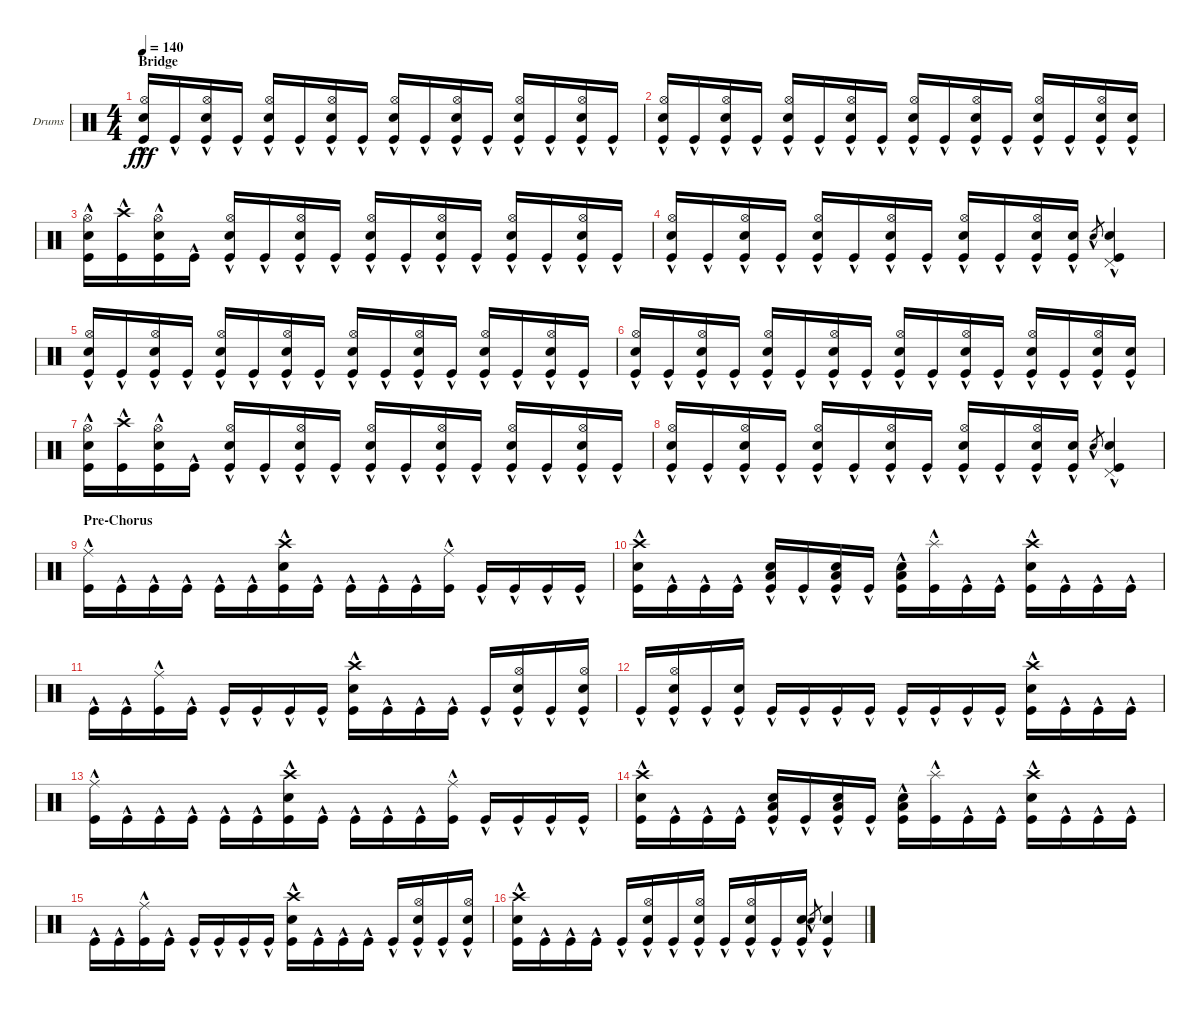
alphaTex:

\bracketExtendMode groupsimilarinstruments
\firstSystemTrackNameOrientation horizontal
\otherSystemsTrackNameOrientation horizontal
\track ("BigMc" "Drums") {instrument percussion}
\staff {score}
\articulation defaults
\ts (4 4)
\section ("" "Bridge")
\tempo 140
\clef neutral
\ks c
("Kick (hit)"{hac} "Hi-Hat (open)"{hac} "Snare (hit) 2"{hac}).16{dy fff} "Kick (hit)"{hac}.16 ("Kick (hit)"{hac} "Hi-Hat (open)"{hac} "Snare (hit) 2"{hac}).16 "Kick (hit)"{hac}.16 ("Kick (hit)"{hac} "Hi-Hat (open)"{hac} "Snare (hit) 2"{hac}).16 "Kick (hit)"{hac}.16 ("Kick (hit)"{hac} "Hi-Hat (open)"{hac} "Snare (hit) 2"{hac}).16 "Kick (hit)"{hac}.16 ("Kick (hit)"{hac} "Hi-Hat (open)"{hac} "Snare (hit) 2"{hac}).16 "Kick (hit)"{hac}.16 ("Kick (hit)"{hac} "Hi-Hat (open)"{hac} "Snare (hit) 2"{hac}).16 "Kick (hit)"{hac}.16 ("Kick (hit)"{hac} "Hi-Hat (open)"{hac} "Snare (hit) 2"{hac}).16 "Kick (hit)"{hac}.16 ("Kick (hit)"{hac} "Hi-Hat (open)"{hac} "Snare (hit) 2"{hac}).16 "Kick (hit)"{hac}.16 |
("Kick (hit)"{hac} "Hi-Hat (open)"{hac} "Snare (hit) 2"{hac}).16 "Kick (hit)"{hac}.16 ("Kick (hit)"{hac} "Hi-Hat (open)"{hac} "Snare (hit) 2"{hac}).16 "Kick (hit)"{hac}.16 ("Kick (hit)"{hac} "Hi-Hat (open)"{hac} "Snare (hit) 2"{hac}).16 "Kick (hit)"{hac}.16 ("Kick (hit)"{hac} "Hi-Hat (open)"{hac} "Snare (hit) 2"{hac}).16 "Kick (hit)"{hac}.16 ("Kick (hit)"{hac} "Hi-Hat (open)"{hac} "Snare (hit) 2"{hac}).16 "Kick (hit)"{hac}.16 ("Kick (hit)"{hac} "Hi-Hat (open)"{hac} "Snare (hit) 2"{hac}).16 "Kick (hit)"{hac}.16 ("Kick (hit)"{hac} "Hi-Hat (open)"{hac} "Snare (hit) 2"{hac}).16 "Kick (hit)"{hac}.16 ("Kick (hit)"{hac} "Hi-Hat (open)"{hac} "Snare (hit) 2"{hac}).16 ("Kick (hit)"{hac} "Snare (hit) 2"{hac}).16 |
("Kick (hit)"{hac} "Hi-Hat (open)"{hac} "Snare (hit) 2"{hac}).16 ("Kick (hit)"{hac} "Crash high (hit)"{hac}).16 ("Kick (hit)"{hac} "Hi-Hat (open)"{hac} "Snare (hit) 2"{hac}).16 "Kick (hit)"{hac}.16 ("Kick (hit)"{hac} "Hi-Hat (open)"{hac} "Snare (hit) 2"{hac}).16 "Kick (hit)"{hac}.16 ("Kick (hit)"{hac} "Hi-Hat (open)"{hac} "Snare (hit) 2"{hac}).16 "Kick (hit)"{hac}.16 ("Kick (hit)"{hac} "Hi-Hat (open)"{hac} "Snare (hit) 2"{hac}).16 "Kick (hit)"{hac}.16 ("Kick (hit)"{hac} "Hi-Hat (open)"{hac} "Snare (hit) 2"{hac}).16 "Kick (hit)"{hac}.16 ("Kick (hit)"{hac} "Hi-Hat (open)"{hac} "Snare (hit) 2"{hac}).16 "Kick (hit)"{hac}.16 ("Kick (hit)"{hac} "Hi-Hat (open)"{hac} "Snare (hit) 2"{hac}).16 "Kick (hit)"{hac}.16 |
("Kick (hit)"{hac} "Hi-Hat (open)"{hac} "Snare (hit) 2"{hac}).16 "Kick (hit)"{hac}.16 ("Kick (hit)"{hac} "Hi-Hat (open)"{hac} "Snare (hit) 2"{hac}).16 "Kick (hit)"{hac}.16 ("Kick (hit)"{hac} "Hi-Hat (open)"{hac} "Snare (hit) 2"{hac}).16 "Kick (hit)"{hac}.16 ("Kick (hit)"{hac} "Hi-Hat (open)"{hac} "Snare (hit) 2"{hac}).16 "Kick (hit)"{hac}.16 ("Kick (hit)"{hac} "Hi-Hat (open)"{hac} "Snare (hit) 2"{hac}).16 "Kick (hit)"{hac}.16 ("Kick (hit)"{hac} "Hi-Hat (open)"{hac} "Snare (hit) 2"{hac}).16 ("Kick (hit)"{hac} "Snare (hit) 2"{hac}).16 "Snare (hit) 2"{hac}.8{gr} ("Snare (hit) 2"{hac} "Pedal Hi-Hat (hit)"{hac} "Kick (hit)"{hac}).4 |
("Kick (hit)"{hac} "Hi-Hat (open)"{hac} "Snare (hit) 2"{hac}).16 "Kick (hit)"{hac}.16 ("Kick (hit)"{hac} "Hi-Hat (open)"{hac} "Snare (hit) 2"{hac}).16 "Kick (hit)"{hac}.16 ("Kick (hit)"{hac} "Hi-Hat (open)"{hac} "Snare (hit) 2"{hac}).16 "Kick (hit)"{hac}.16 ("Kick (hit)"{hac} "Hi-Hat (open)"{hac} "Snare (hit) 2"{hac}).16 "Kick (hit)"{hac}.16 ("Kick (hit)"{hac} "Hi-Hat (open)"{hac} "Snare (hit) 2"{hac}).16 "Kick (hit)"{hac}.16 ("Kick (hit)"{hac} "Hi-Hat (open)"{hac} "Snare (hit) 2"{hac}).16 "Kick (hit)"{hac}.16 ("Kick (hit)"{hac} "Hi-Hat (open)"{hac} "Snare (hit) 2"{hac}).16 "Kick (hit)"{hac}.16 ("Kick (hit)"{hac} "Hi-Hat (open)"{hac} "Snare (hit) 2"{hac}).16 "Kick (hit)"{hac}.16 |
("Kick (hit)"{hac} "Hi-Hat (open)"{hac} "Snare (hit) 2"{hac}).16 "Kick (hit)"{hac}.16 ("Kick (hit)"{hac} "Hi-Hat (open)"{hac} "Snare (hit) 2"{hac}).16 "Kick (hit)"{hac}.16 ("Kick (hit)"{hac} "Hi-Hat (open)"{hac} "Snare (hit) 2"{hac}).16 "Kick (hit)"{hac}.16 ("Kick (hit)"{hac} "Hi-Hat (open)"{hac} "Snare (hit) 2"{hac}).16 "Kick (hit)"{hac}.16 ("Kick (hit)"{hac} "Hi-Hat (open)"{hac} "Snare (hit) 2"{hac}).16 "Kick (hit)"{hac}.16 ("Kick (hit)"{hac} "Hi-Hat (open)"{hac} "Snare (hit) 2"{hac}).16 "Kick (hit)"{hac}.16 ("Kick (hit)"{hac} "Hi-Hat (open)"{hac} "Snare (hit) 2"{hac}).16 "Kick (hit)"{hac}.16 ("Kick (hit)"{hac} "Hi-Hat (open)"{hac} "Snare (hit) 2"{hac}).16 ("Kick (hit)"{hac} "Snare (hit) 2"{hac}).16 |
("Kick (hit)"{hac} "Hi-Hat (open)"{hac} "Snare (hit) 2"{hac}).16 ("Kick (hit)"{hac} "Crash high (hit)"{hac}).16 ("Kick (hit)"{hac} "Hi-Hat (open)"{hac} "Snare (hit) 2"{hac}).16 "Kick (hit)"{hac}.16 ("Kick (hit)"{hac} "Hi-Hat (open)"{hac} "Snare (hit) 2"{hac}).16 "Kick (hit)"{hac}.16 ("Kick (hit)"{hac} "Hi-Hat (open)"{hac} "Snare (hit) 2"{hac}).16 "Kick (hit)"{hac}.16 ("Kick (hit)"{hac} "Hi-Hat (open)"{hac} "Snare (hit) 2"{hac}).16 "Kick (hit)"{hac}.16 ("Kick (hit)"{hac} "Hi-Hat (open)"{hac} "Snare (hit) 2"{hac}).16 "Kick (hit)"{hac}.16 ("Kick (hit)"{hac} "Hi-Hat (open)"{hac} "Snare (hit) 2"{hac}).16 "Kick (hit)"{hac}.16 ("Kick (hit)"{hac} "Hi-Hat (open)"{hac} "Snare (hit) 2"{hac}).16 "Kick (hit)"{hac}.16 |
("Kick (hit)"{hac} "Hi-Hat (open)"{hac} "Snare (hit) 2"{hac}).16 "Kick (hit)"{hac}.16 ("Kick (hit)"{hac} "Hi-Hat (open)"{hac} "Snare (hit) 2"{hac}).16 "Kick (hit)"{hac}.16 ("Kick (hit)"{hac} "Hi-Hat (open)"{hac} "Snare (hit) 2"{hac}).16 "Kick (hit)"{hac}.16 ("Kick (hit)"{hac} "Hi-Hat (open)"{hac} "Snare (hit) 2"{hac}).16 "Kick (hit)"{hac}.16 ("Kick (hit)"{hac} "Hi-Hat (open)"{hac} "Snare (hit) 2"{hac}).16 "Kick (hit)"{hac}.16 ("Kick (hit)"{hac} "Hi-Hat (open)"{hac} "Snare (hit) 2"{hac}).16 ("Kick (hit)"{hac} "Snare (hit) 2"{hac}).16 "Snare (hit) 2"{hac}.8{gr} ("Snare (hit) 2"{hac} "Pedal Hi-Hat (hit)"{hac} "Kick (hit)"{hac}).4 |
\section ("" "Pre-Chorus")
("Kick (hit)"{hac} "Ride (middle)"{hac}).16 "Kick (hit)"{hac}.16 "Kick (hit)"{hac}.16 "Kick (hit)"{hac}.16 "Kick (hit)"{hac}.16 "Kick (hit)"{hac}.16 ("Kick (hit)"{hac} "Crash high (hit)"{hac} "Snare (hit) 2"{hac}).16 "Kick (hit)"{hac}.16 "Kick (hit)"{hac}.16 "Kick (hit)"{hac}.16 "Kick (hit)"{hac}.16 ("Kick (hit)"{hac} "Ride (middle)"{hac}).16 "Kick (hit)"{hac}.16 "Kick (hit)"{hac}.16 "Kick (hit)"{hac}.16 "Kick (hit)"{hac}.16 |
("Kick (hit)"{hac} "Crash high (hit)"{hac} "Snare (hit) 2"{hac}).16 "Kick (hit)"{hac}.16 "Kick (hit)"{hac}.16 "Kick (hit)"{hac}.16 ("Kick (hit)"{hac} "Low Tom (hit)"{hac} "Snare (hit) 2"{hac}).16 "Kick (hit)"{hac}.16 ("Kick (hit)"{hac} "Low Tom (hit)"{hac} "Snare (hit) 2"{hac}).16 "Kick (hit)"{hac}.16 ("Kick (hit)"{hac} "Low Tom (hit)"{hac} "Snare (hit) 2"{hac}).16 ("Kick (hit)"{hac} "Splash (hit)"{hac}).16 "Kick (hit)"{hac}.16 "Kick (hit)"{hac}.16 ("Kick (hit)"{hac} "Crash high (hit)"{hac} "Snare (hit) 2"{hac}).16 "Kick (hit)"{hac}.16 "Kick (hit)"{hac}.16 "Kick (hit)"{hac}.16 |
"Kick (hit)"{hac}.16 "Kick (hit)"{hac}.16 ("Kick (hit)"{hac} "Ride (middle)"{hac}).16 "Kick (hit)"{hac}.16 "Kick (hit)"{hac}.16 "Kick (hit)"{hac}.16 "Kick (hit)"{hac}.16 "Kick (hit)"{hac}.16 ("Kick (hit)"{hac} "Crash high (hit)"{hac} "Snare (hit) 2"{hac}).16 "Kick (hit)"{hac}.16 "Kick (hit)"{hac}.16 "Kick (hit)"{hac}.16 "Kick (hit)"{hac}.16 ("Kick (hit)"{hac} "Snare (hit) 2"{hac} "Hi-Hat (open)"{hac}).16 "Kick (hit)"{hac}.16 ("Kick (hit)"{hac} "Snare (hit) 2"{hac} "Hi-Hat (open)"{hac}).16 |
"Kick (hit)"{hac}.16 ("Kick (hit)"{hac} "Snare (hit) 2"{hac} "Hi-Hat (open)"{hac}).16 "Kick (hit)"{hac}.16 ("Kick (hit)"{hac} "Snare (hit) 2"{hac}).16 "Kick (hit)"{hac}.16 "Kick (hit)"{hac}.16 "Kick (hit)"{hac}.16 "Kick (hit)"{hac}.16 "Kick (hit)"{hac}.16 "Kick (hit)"{hac}.16 "Kick (hit)"{hac}.16 "Kick (hit)"{hac}.16 ("Kick (hit)"{hac} "Crash high (hit)"{hac} "Snare (hit) 2"{hac}).16 "Kick (hit)"{hac}.16 "Kick (hit)"{hac}.16 "Kick (hit)"{hac}.16 |
("Kick (hit)"{hac} "Ride (middle)"{hac}).16 "Kick (hit)"{hac}.16 "Kick (hit)"{hac}.16 "Kick (hit)"{hac}.16 "Kick (hit)"{hac}.16 "Kick (hit)"{hac}.16 ("Kick (hit)"{hac} "Crash high (hit)"{hac} "Snare (hit) 2"{hac}).16 "Kick (hit)"{hac}.16 "Kick (hit)"{hac}.16 "Kick (hit)"{hac}.16 "Kick (hit)"{hac}.16 ("Kick (hit)"{hac} "Ride (middle)"{hac}).16 "Kick (hit)"{hac}.16 "Kick (hit)"{hac}.16 "Kick (hit)"{hac}.16 "Kick (hit)"{hac}.16 |
("Kick (hit)"{hac} "Crash high (hit)"{hac} "Snare (hit) 2"{hac}).16 "Kick (hit)"{hac}.16 "Kick (hit)"{hac}.16 "Kick (hit)"{hac}.16 ("Kick (hit)"{hac} "Low Tom (hit)"{hac} "Snare (hit) 2"{hac}).16 "Kick (hit)"{hac}.16 ("Kick (hit)"{hac} "Low Tom (hit)"{hac} "Snare (hit) 2"{hac}).16 "Kick (hit)"{hac}.16 ("Kick (hit)"{hac} "Low Tom (hit)"{hac} "Snare (hit) 2"{hac}).16 ("Kick (hit)"{hac} "Splash (hit)"{hac}).16 "Kick (hit)"{hac}.16 "Kick (hit)"{hac}.16 ("Kick (hit)"{hac} "Crash high (hit)"{hac} "Snare (hit) 2"{hac}).16 "Kick (hit)"{hac}.16 "Kick (hit)"{hac}.16 "Kick (hit)"{hac}.16 |
"Kick (hit)"{hac}.16 "Kick (hit)"{hac}.16 ("Kick (hit)"{hac} "Ride (middle)"{hac}).16 "Kick (hit)"{hac}.16 "Kick (hit)"{hac}.16 "Kick (hit)"{hac}.16 "Kick (hit)"{hac}.16 "Kick (hit)"{hac}.16 ("Kick (hit)"{hac} "Crash high (hit)"{hac} "Snare (hit) 2"{hac}).16 "Kick (hit)"{hac}.16 "Kick (hit)"{hac}.16 "Kick (hit)"{hac}.16 "Kick (hit)"{hac}.16 ("Kick (hit)"{hac} "Snare (hit) 2"{hac} "Hi-Hat (open)"{hac}).16 "Kick (hit)"{hac}.16 ("Kick (hit)"{hac} "Snare (hit) 2"{hac} "Hi-Hat (open)"{hac}).16 |
("Kick (hit)"{hac} "Crash high (hit)"{hac} "Snare (hit) 2"{hac}).16 "Kick (hit)"{hac}.16 "Kick (hit)"{hac}.16 "Kick (hit)"{hac}.16 "Kick (hit)"{hac}.16 ("Kick (hit)"{hac} "Snare (hit) 2"{hac} "Hi-Hat (open)"{hac}).16 "Kick (hit)"{hac}.16 ("Kick (hit)"{hac} "Snare (hit) 2"{hac} "Hi-Hat (open)"{hac}).16 "Kick (hit)"{hac}.16 ("Kick (hit)"{hac} "Snare (hit) 2"{hac} "Hi-Hat (open)"{hac}).16 "Kick (hit)"{hac}.16 ("Kick (hit)"{hac} "Snare (hit) 2"{hac}).16 "Snare (hit) 2"{hac}.8{gr} ("Snare (hit) 2"{hac} "Kick (hit)"{hac}).4
